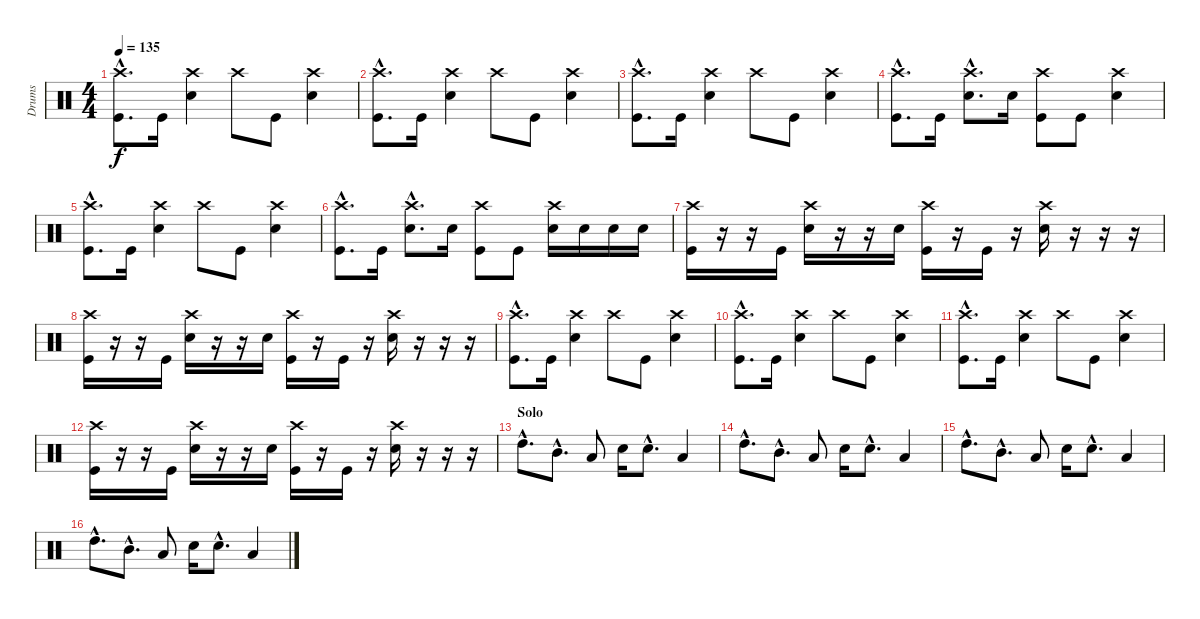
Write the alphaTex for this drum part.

\track ("Drums" "Drums") {instrument percussion}
\staff {score}
\articulation defaults
\ts (4 4)
\tempo 135
\clef neutral
\ks c
("Crash high (hit)"{hac} "Kick (hit)"{hac}).8{d dy f} "Kick (hit)".16 ("Crash high (hit)" "Electric Snare (hit)").4 "Crash high (hit)".8 "Kick (hit)".8 ("Crash high (hit)" "Electric Snare (hit)").4 |
("Crash high (hit)"{hac} "Kick (hit)"{hac}).8{d} "Kick (hit)".16 ("Crash high (hit)" "Electric Snare (hit)").4 "Crash high (hit)".8 "Kick (hit)".8 ("Crash high (hit)" "Electric Snare (hit)").4 |
("Crash high (hit)"{hac} "Kick (hit)"{hac}).8{d} "Kick (hit)".16 ("Crash high (hit)" "Electric Snare (hit)").4 "Crash high (hit)".8 "Kick (hit)".8 ("Crash high (hit)" "Electric Snare (hit)").4 |
("Crash high (hit)"{hac} "Kick (hit)"{hac}).8{d} "Kick (hit)".16 ("Crash high (hit)"{hac} "Electric Snare (hit)"{hac}).8{d} "Electric Snare (hit)".16 ("Crash high (hit)" "Kick (hit)").8 "Kick (hit)".8 ("Crash high (hit)" "Electric Snare (hit)").4 |
("Crash high (hit)"{hac} "Kick (hit)"{hac}).8{d} "Kick (hit)".16 ("Crash high (hit)" "Electric Snare (hit)").4 "Crash high (hit)".8 "Kick (hit)".8 ("Crash high (hit)" "Electric Snare (hit)").4 |
("Crash high (hit)"{hac} "Kick (hit)"{hac}).8{d} "Kick (hit)".16 ("Crash high (hit)"{hac} "Electric Snare (hit)"{hac}).8{d} "Electric Snare (hit)".16 ("Crash high (hit)" "Kick (hit)").8 "Kick (hit)".8 ("Crash high (hit)" "Electric Snare (hit)").16 "Electric Snare (hit)".16 "Electric Snare (hit)".16 "Electric Snare (hit)".16 |
("Crash high (hit)" "Kick (hit)").16 r.16 r.16 "Kick (hit)".16 ("Crash high (hit)" "Electric Snare (hit)").16 r.16 r.16 "Electric Snare (hit)".16 ("Crash high (hit)" "Kick (hit)").16 r.16 "Kick (hit)".16 r.16 ("Crash high (hit)" "Electric Snare (hit)").16 r.16 r.16 r.16 |
("Crash high (hit)" "Kick (hit)").16 r.16 r.16 "Kick (hit)".16 ("Crash high (hit)" "Electric Snare (hit)").16 r.16 r.16 "Electric Snare (hit)".16 ("Crash high (hit)" "Kick (hit)").16 r.16 "Kick (hit)".16 r.16 ("Crash high (hit)" "Electric Snare (hit)").16 r.16 r.16 r.16 |
("Crash high (hit)"{hac} "Kick (hit)"{hac}).8{d} "Kick (hit)".16 ("Crash high (hit)" "Electric Snare (hit)").4 "Crash high (hit)".8 "Kick (hit)".8 ("Crash high (hit)" "Electric Snare (hit)").4 |
("Crash high (hit)"{hac} "Kick (hit)"{hac}).8{d} "Kick (hit)".16 ("Crash high (hit)" "Electric Snare (hit)").4 "Crash high (hit)".8 "Kick (hit)".8 ("Crash high (hit)" "Electric Snare (hit)").4 |
("Crash high (hit)"{hac} "Kick (hit)"{hac}).8{d} "Kick (hit)".16 ("Crash high (hit)" "Electric Snare (hit)").4 "Crash high (hit)".8 "Kick (hit)".8 ("Crash high (hit)" "Electric Snare (hit)").4 |
("Crash high (hit)" "Kick (hit)").16 r.16 r.16 "Kick (hit)".16 ("Crash high (hit)" "Electric Snare (hit)").16 r.16 r.16 "Electric Snare (hit)".16 ("Crash high (hit)" "Kick (hit)").16 r.16 "Kick (hit)".16 r.16 ("Crash high (hit)" "Electric Snare (hit)").16 r.16 r.16 r.16 |
\section ("" "Solo")
"High Tom (hit)"{hac}.8{d} "Mid Tom (hit)"{hac}.8{d} "Low Tom (hit)".8 "Electric Snare (hit)".16 "Electric Snare (hit)"{hac}.8{d} "Low Floor Tom (hit)".4 |
"High Tom (hit)"{hac}.8{d} "Mid Tom (hit)"{hac}.8{d} "Low Tom (hit)".8 "Electric Snare (hit)".16 "Electric Snare (hit)"{hac}.8{d} "Low Floor Tom (hit)".4 |
"High Tom (hit)"{hac}.8{d} "Mid Tom (hit)"{hac}.8{d} "Low Tom (hit)".8 "Electric Snare (hit)".16 "Electric Snare (hit)"{hac}.8{d} "Low Floor Tom (hit)".4 |
"High Tom (hit)"{hac}.8{d} "Mid Tom (hit)"{hac}.8{d} "Low Tom (hit)".8 "Electric Snare (hit)".16 "Electric Snare (hit)"{hac}.8{d} "Low Floor Tom (hit)".4
